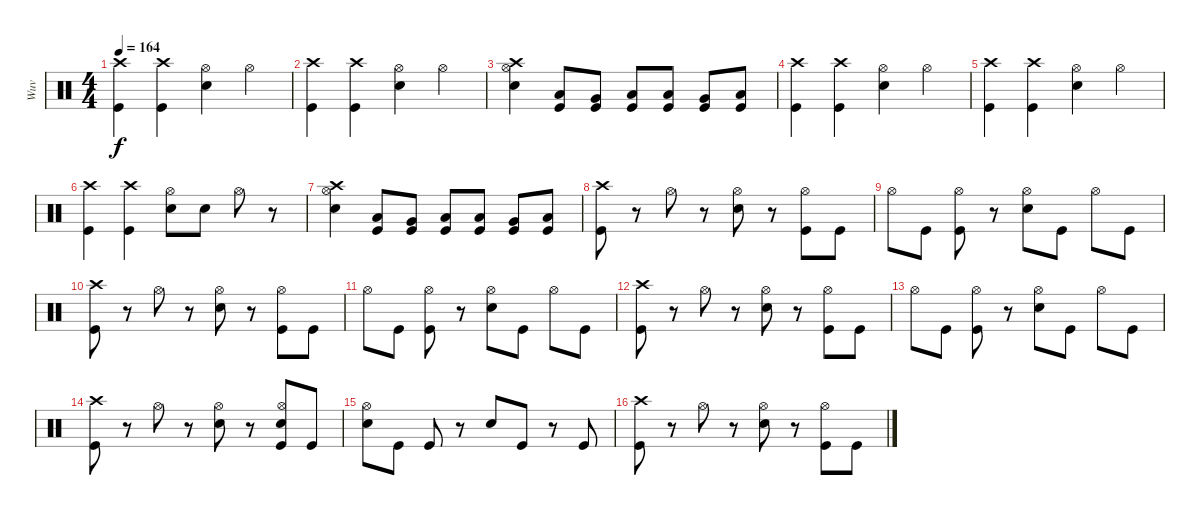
\track ("Wuv" "Wuv") {instrument percussion}
\staff {score}
\articulation defaults
\ts (4 4)
\tempo 164
\clef neutral
\ks c
("Crash high (hit)" "Kick (hit)").4{dy f} ("Crash high (hit)" "Kick (hit)").4 ("Hi-Hat (open)" "Snare (hit) 2").4 "Hi-Hat (open)".4 |
("Crash high (hit)" "Kick (hit)").4 ("Crash high (hit)" "Kick (hit)").4 ("Hi-Hat (open)" "Snare (hit) 2").4 "Hi-Hat (open)".4 |
("Hi-Hat (open)" "Crash high (hit)" "Snare (hit) 2").4 ("Low Tom (hit)" "Kick (hit)").8 ("Very Low Tom (hit)" "Kick (hit)").8 ("Low Floor Tom (hit)" "Kick (hit)").8 ("Low Tom (hit)" "Kick (hit)").8 ("Very Low Tom (hit)" "Kick (hit)").8 ("Low Floor Tom (hit)" "Kick (hit)").8 |
("Crash high (hit)" "Kick (hit)").4 ("Crash high (hit)" "Kick (hit)").4 ("Hi-Hat (open)" "Snare (hit) 2").4 "Hi-Hat (open)".4 |
("Crash high (hit)" "Kick (hit)").4 ("Crash high (hit)" "Kick (hit)").4 ("Hi-Hat (open)" "Snare (hit) 2").4 "Hi-Hat (open)".4 |
("Crash high (hit)" "Kick (hit)").4 ("Crash high (hit)" "Kick (hit)").4 ("Hi-Hat (open)" "Snare (hit) 2").8 "Snare (hit) 2".8 "Hi-Hat (open)".8 r.8 |
("Hi-Hat (open)" "Crash high (hit)" "Snare (hit) 2").4 ("Low Tom (hit)" "Kick (hit)").8 ("Very Low Tom (hit)" "Kick (hit)").8 ("Low Floor Tom (hit)" "Kick (hit)").8 ("Low Tom (hit)" "Kick (hit)").8 ("Very Low Tom (hit)" "Kick (hit)").8 ("Low Floor Tom (hit)" "Kick (hit)").8 |
("Crash high (hit)" "Kick (hit)").8 r.8 "Hi-Hat (open)".8 r.8 ("Hi-Hat (open)" "Snare (hit) 2").8 r.8 ("Hi-Hat (open)" "Kick (hit)").8 "Kick (hit)".8 |
"Hi-Hat (open)".8 "Kick (hit)".8 ("Hi-Hat (open)" "Kick (hit)").8 r.8 ("Hi-Hat (open)" "Snare (hit) 2").8 "Kick (hit)".8 "Hi-Hat (open)".8 "Kick (hit)".8 |
("Crash high (hit)" "Kick (hit)").8 r.8 "Hi-Hat (open)".8 r.8 ("Hi-Hat (open)" "Snare (hit) 2").8 r.8 ("Hi-Hat (open)" "Kick (hit)").8 "Kick (hit)".8 |
"Hi-Hat (open)".8 "Kick (hit)".8 ("Hi-Hat (open)" "Kick (hit)").8 r.8 ("Hi-Hat (open)" "Snare (hit) 2").8 "Kick (hit)".8 "Hi-Hat (open)".8 "Kick (hit)".8 |
("Crash high (hit)" "Kick (hit)").8 r.8 "Hi-Hat (open)".8 r.8 ("Hi-Hat (open)" "Snare (hit) 2").8 r.8 ("Hi-Hat (open)" "Kick (hit)").8 "Kick (hit)".8 |
"Hi-Hat (open)".8 "Kick (hit)".8 ("Hi-Hat (open)" "Kick (hit)").8 r.8 ("Hi-Hat (open)" "Snare (hit) 2").8 "Kick (hit)".8 "Hi-Hat (open)".8 "Kick (hit)".8 |
("Crash high (hit)" "Kick (hit)").8 r.8 "Hi-Hat (open)".8 r.8 ("Hi-Hat (open)" "Snare (hit) 2").8 r.8 ("Hi-Hat (open)" "Snare (hit) 2" "Kick (hit)").8 "Kick (hit)".8 |
("Hi-Hat (open)" "Snare (hit) 2").8 "Kick (hit)".8 "Kick (hit)".8 r.8 "Snare (hit) 2".8 "Kick (hit)".8 r.8 "Kick (hit)".8 |
("Crash high (hit)" "Kick (hit)").8 r.8 "Hi-Hat (open)".8 r.8 ("Hi-Hat (open)" "Snare (hit) 2").8 r.8 ("Hi-Hat (open)" "Kick (hit)").8 "Kick (hit)".8
